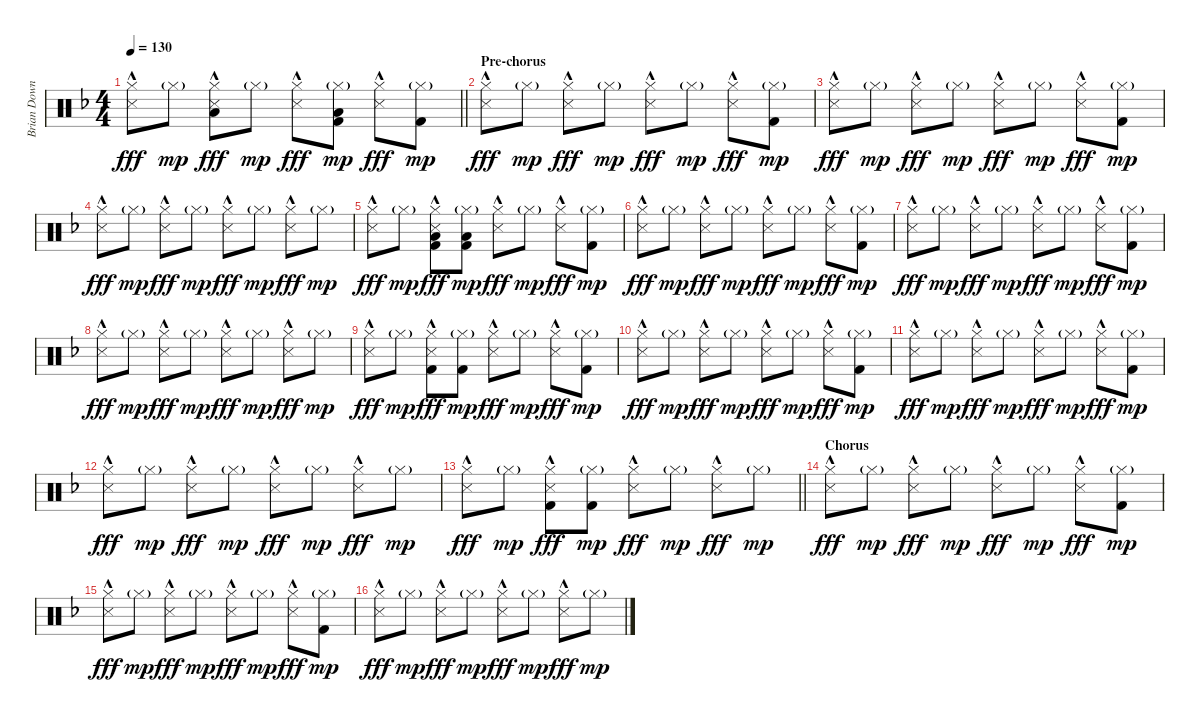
\track ("Brian Downey" "Brian Down") {instrument percussion}
\staff {score}
\articulation defaults
\ts (4 4)
\tempo 130
\clef neutral
\barLineRight lightlight
\ks dminor
("Hi-Hat (closed)" "Metronome (hit)"{hac}).8{dy fff} "Hi-Hat (closed)"{g}.8{dy mp} ("Hi-Hat (closed)" "Low Tom (hit)" "Metronome (hit)"{hac}).8{dy fff} "Hi-Hat (closed)"{g}.8{dy mp} ("Hi-Hat (closed)" "Metronome (hit)"{hac}).8{dy fff} ("Hi-Hat (closed)"{g} "Low Tom (hit)" "Kick (hit) 2").8{dy mp} ("Hi-Hat (closed)" "Metronome (hit)"{hac}).8{dy fff} ("Hi-Hat (closed)"{g} "Kick (hit) 2").8{dy mp} |
\section ("" "Pre-chorus")
("Hi-Hat (closed)" "Metronome (hit)"{hac}).8{dy fff} "Hi-Hat (closed)"{g}.8{dy mp} ("Hi-Hat (closed)" "Metronome (hit)"{hac}).8{dy fff} "Hi-Hat (closed)"{g}.8{dy mp} ("Hi-Hat (closed)" "Metronome (hit)"{hac}).8{dy fff} "Hi-Hat (closed)"{g}.8{dy mp} ("Hi-Hat (closed)" "Metronome (hit)"{hac}).8{dy fff} ("Hi-Hat (closed)"{g} "Kick (hit) 2").8{dy mp} |
("Hi-Hat (closed)" "Metronome (hit)"{hac}).8{dy fff} "Hi-Hat (closed)"{g}.8{dy mp} ("Hi-Hat (closed)" "Metronome (hit)"{hac}).8{dy fff} "Hi-Hat (closed)"{g}.8{dy mp} ("Hi-Hat (closed)" "Metronome (hit)"{hac}).8{dy fff} "Hi-Hat (closed)"{g}.8{dy mp} ("Hi-Hat (closed)" "Metronome (hit)"{hac}).8{dy fff} ("Hi-Hat (closed)"{g} "Kick (hit) 2").8{dy mp} |
("Hi-Hat (closed)" "Metronome (hit)"{hac}).8{dy fff} "Hi-Hat (closed)"{g}.8{dy mp} ("Hi-Hat (closed)" "Metronome (hit)"{hac}).8{dy fff} "Hi-Hat (closed)"{g}.8{dy mp} ("Hi-Hat (closed)" "Metronome (hit)"{hac}).8{dy fff} "Hi-Hat (closed)"{g}.8{dy mp} ("Hi-Hat (closed)" "Metronome (hit)"{hac}).8{dy fff} "Hi-Hat (closed)"{g}.8{dy mp} |
("Hi-Hat (closed)" "Metronome (hit)"{hac}).8{dy fff} "Hi-Hat (closed)"{g}.8{dy mp} ("Hi-Hat (closed)" "Low Tom (hit)" "Metronome (hit)"{hac} "Kick (hit) 2").8{dy fff} ("Hi-Hat (closed)"{g} "Low Tom (hit)" "Kick (hit) 2").8{dy mp} ("Hi-Hat (closed)" "Metronome (hit)"{hac}).8{dy fff} "Hi-Hat (closed)"{g}.8{dy mp} ("Hi-Hat (closed)" "Metronome (hit)"{hac}).8{dy fff} ("Hi-Hat (closed)"{g} "Kick (hit) 2").8{dy mp} |
("Hi-Hat (closed)" "Metronome (hit)"{hac}).8{dy fff} "Hi-Hat (closed)"{g}.8{dy mp} ("Hi-Hat (closed)" "Metronome (hit)"{hac}).8{dy fff} "Hi-Hat (closed)"{g}.8{dy mp} ("Hi-Hat (closed)" "Metronome (hit)"{hac}).8{dy fff} "Hi-Hat (closed)"{g}.8{dy mp} ("Hi-Hat (closed)" "Metronome (hit)"{hac}).8{dy fff} ("Hi-Hat (closed)"{g} "Kick (hit) 2").8{dy mp} |
("Hi-Hat (closed)" "Metronome (hit)"{hac}).8{dy fff} "Hi-Hat (closed)"{g}.8{dy mp} ("Hi-Hat (closed)" "Metronome (hit)"{hac}).8{dy fff} "Hi-Hat (closed)"{g}.8{dy mp} ("Hi-Hat (closed)" "Metronome (hit)"{hac}).8{dy fff} "Hi-Hat (closed)"{g}.8{dy mp} ("Hi-Hat (closed)" "Metronome (hit)"{hac}).8{dy fff} ("Hi-Hat (closed)"{g} "Kick (hit) 2").8{dy mp} |
("Hi-Hat (closed)" "Metronome (hit)"{hac}).8{dy fff} "Hi-Hat (closed)"{g}.8{dy mp} ("Hi-Hat (closed)" "Metronome (hit)"{hac}).8{dy fff} "Hi-Hat (closed)"{g}.8{dy mp} ("Hi-Hat (closed)" "Metronome (hit)"{hac}).8{dy fff} "Hi-Hat (closed)"{g}.8{dy mp} ("Hi-Hat (closed)" "Metronome (hit)"{hac}).8{dy fff} "Hi-Hat (closed)"{g}.8{dy mp} |
("Hi-Hat (closed)" "Metronome (hit)"{hac}).8{dy fff} "Hi-Hat (closed)"{g}.8{dy mp} ("Hi-Hat (closed)" "Metronome (hit)"{hac} "Kick (hit) 2").8{dy fff} ("Hi-Hat (closed)"{g} "Kick (hit) 2").8{dy mp} ("Hi-Hat (closed)" "Metronome (hit)"{hac}).8{dy fff} "Hi-Hat (closed)"{g}.8{dy mp} ("Hi-Hat (closed)" "Metronome (hit)"{hac}).8{dy fff} ("Hi-Hat (closed)"{g} "Kick (hit) 2").8{dy mp} |
("Hi-Hat (closed)" "Metronome (hit)"{hac}).8{dy fff} "Hi-Hat (closed)"{g}.8{dy mp} ("Hi-Hat (closed)" "Metronome (hit)"{hac}).8{dy fff} "Hi-Hat (closed)"{g}.8{dy mp} ("Hi-Hat (closed)" "Metronome (hit)"{hac}).8{dy fff} "Hi-Hat (closed)"{g}.8{dy mp} ("Hi-Hat (closed)" "Metronome (hit)"{hac}).8{dy fff} ("Hi-Hat (closed)"{g} "Kick (hit) 2").8{dy mp} |
("Hi-Hat (closed)" "Metronome (hit)"{hac}).8{dy fff} "Hi-Hat (closed)"{g}.8{dy mp} ("Hi-Hat (closed)" "Metronome (hit)"{hac}).8{dy fff} "Hi-Hat (closed)"{g}.8{dy mp} ("Hi-Hat (closed)" "Metronome (hit)"{hac}).8{dy fff} "Hi-Hat (closed)"{g}.8{dy mp} ("Hi-Hat (closed)" "Metronome (hit)"{hac}).8{dy fff} ("Hi-Hat (closed)"{g} "Kick (hit) 2").8{dy mp} |
("Hi-Hat (closed)" "Metronome (hit)"{hac}).8{dy fff} "Hi-Hat (closed)"{g}.8{dy mp} ("Hi-Hat (closed)" "Metronome (hit)"{hac}).8{dy fff} "Hi-Hat (closed)"{g}.8{dy mp} ("Hi-Hat (closed)" "Metronome (hit)"{hac}).8{dy fff} "Hi-Hat (closed)"{g}.8{dy mp} ("Hi-Hat (closed)" "Metronome (hit)"{hac}).8{dy fff} "Hi-Hat (closed)"{g}.8{dy mp} |
\barLineRight lightlight
("Hi-Hat (closed)" "Metronome (hit)"{hac}).8{dy fff} "Hi-Hat (closed)"{g}.8{dy mp} ("Hi-Hat (closed)" "Metronome (hit)"{hac} "Kick (hit) 2").8{dy fff} ("Hi-Hat (closed)"{g} "Kick (hit) 2").8{dy mp} ("Hi-Hat (closed)" "Metronome (hit)"{hac}).8{dy fff} "Hi-Hat (closed)"{g}.8{dy mp} ("Hi-Hat (closed)" "Metronome (hit)"{hac}).8{dy fff} "Hi-Hat (closed)"{g}.8{dy mp} |
\section ("" "Chorus")
("Hi-Hat (closed)" "Metronome (hit)"{hac}).8{dy fff} "Hi-Hat (closed)"{g}.8{dy mp} ("Hi-Hat (closed)" "Metronome (hit)"{hac}).8{dy fff} "Hi-Hat (closed)"{g}.8{dy mp} ("Hi-Hat (closed)" "Metronome (hit)"{hac}).8{dy fff} "Hi-Hat (closed)"{g}.8{dy mp} ("Hi-Hat (closed)" "Metronome (hit)"{hac}).8{dy fff} ("Hi-Hat (closed)"{g} "Kick (hit) 2").8{dy mp} |
("Hi-Hat (closed)" "Metronome (hit)"{hac}).8{dy fff} "Hi-Hat (closed)"{g}.8{dy mp} ("Hi-Hat (closed)" "Metronome (hit)"{hac}).8{dy fff} "Hi-Hat (closed)"{g}.8{dy mp} ("Hi-Hat (closed)" "Metronome (hit)"{hac}).8{dy fff} "Hi-Hat (closed)"{g}.8{dy mp} ("Hi-Hat (closed)" "Metronome (hit)"{hac}).8{dy fff} ("Hi-Hat (closed)"{g} "Kick (hit) 2").8{dy mp} |
("Hi-Hat (closed)" "Metronome (hit)"{hac}).8{dy fff} "Hi-Hat (closed)"{g}.8{dy mp} ("Hi-Hat (closed)" "Metronome (hit)"{hac}).8{dy fff} "Hi-Hat (closed)"{g}.8{dy mp} ("Hi-Hat (closed)" "Metronome (hit)"{hac}).8{dy fff} "Hi-Hat (closed)"{g}.8{dy mp} ("Hi-Hat (closed)" "Metronome (hit)"{hac}).8{dy fff} "Hi-Hat (closed)"{g}.8{dy mp}
